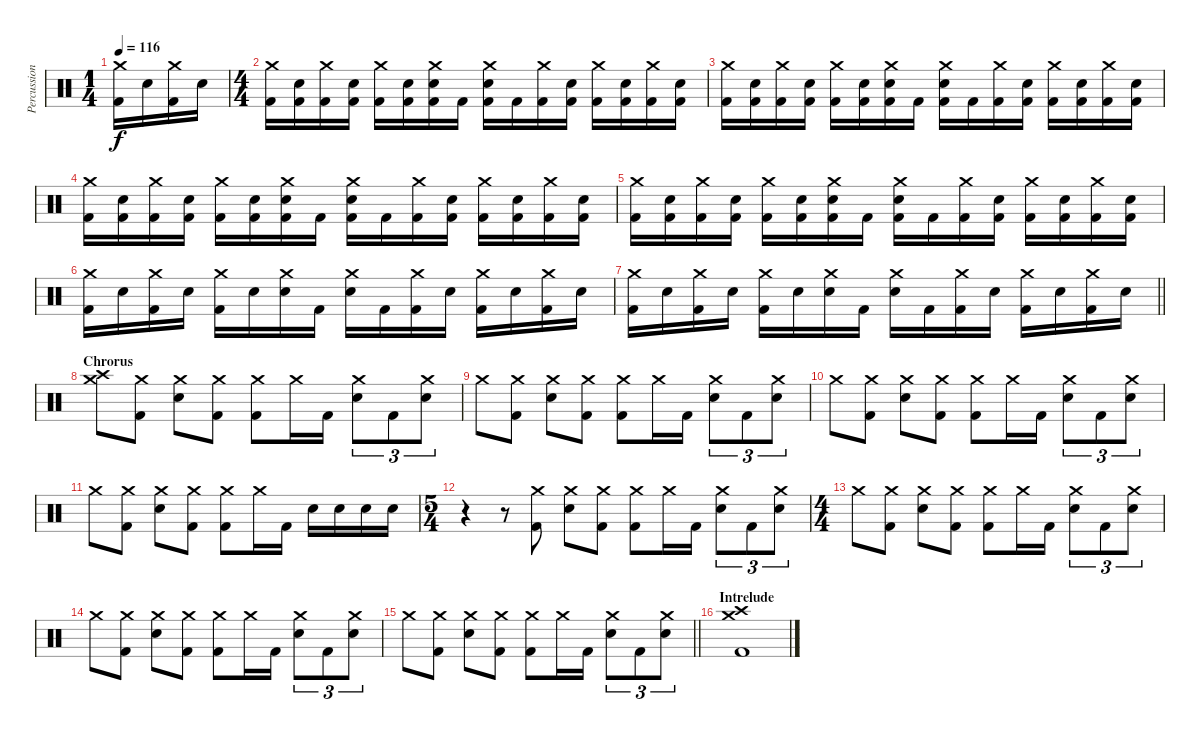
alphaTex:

\track ("Percussion" "Percussion") {instrument percussion}
\staff {score}
\articulation defaults
\ts (1 4)
\tempo 116
\clef neutral
\ks c
("Crash medium (hit)" "Kick (hit) 2").16{dy f} "Electric Snare (hit)".16 ("Crash medium (hit)" "Kick (hit) 2").16 "Electric Snare (hit)".16 |
\ts (4 4)
("Crash medium (hit)" "Kick (hit) 2").16 ("Electric Snare (hit)" "Kick (hit) 2").16 ("Crash medium (hit)" "Kick (hit) 2").16 ("Electric Snare (hit)" "Kick (hit) 2").16 ("Crash medium (hit)" "Kick (hit) 2").16 ("Electric Snare (hit)" "Kick (hit) 2").16 ("Crash medium (hit)" "Electric Snare (hit)" "Kick (hit) 2").16 "Kick (hit) 2".16 ("Crash medium (hit)" "Electric Snare (hit)" "Kick (hit) 2").16 "Kick (hit) 2".16 ("Crash medium (hit)" "Kick (hit) 2").16 ("Electric Snare (hit)" "Kick (hit) 2").16 ("Crash medium (hit)" "Kick (hit) 2").16 ("Electric Snare (hit)" "Kick (hit) 2").16 ("Crash medium (hit)" "Kick (hit) 2").16 ("Electric Snare (hit)" "Kick (hit) 2").16 |
("Crash medium (hit)" "Kick (hit) 2").16 ("Electric Snare (hit)" "Kick (hit) 2").16 ("Crash medium (hit)" "Kick (hit) 2").16 ("Electric Snare (hit)" "Kick (hit) 2").16 ("Crash medium (hit)" "Kick (hit) 2").16 ("Electric Snare (hit)" "Kick (hit) 2").16 ("Crash medium (hit)" "Electric Snare (hit)" "Kick (hit) 2").16 "Kick (hit) 2".16 ("Crash medium (hit)" "Electric Snare (hit)" "Kick (hit) 2").16 "Kick (hit) 2".16 ("Crash medium (hit)" "Kick (hit) 2").16 ("Electric Snare (hit)" "Kick (hit) 2").16 ("Crash medium (hit)" "Kick (hit) 2").16 ("Electric Snare (hit)" "Kick (hit) 2").16 ("Crash medium (hit)" "Kick (hit) 2").16 ("Electric Snare (hit)" "Kick (hit) 2").16 |
("Crash medium (hit)" "Kick (hit) 2").16 ("Electric Snare (hit)" "Kick (hit) 2").16 ("Crash medium (hit)" "Kick (hit) 2").16 ("Electric Snare (hit)" "Kick (hit) 2").16 ("Crash medium (hit)" "Kick (hit) 2").16 ("Electric Snare (hit)" "Kick (hit) 2").16 ("Crash medium (hit)" "Electric Snare (hit)" "Kick (hit) 2").16 "Kick (hit) 2".16 ("Crash medium (hit)" "Electric Snare (hit)" "Kick (hit) 2").16 "Kick (hit) 2".16 ("Crash medium (hit)" "Kick (hit) 2").16 ("Electric Snare (hit)" "Kick (hit) 2").16 ("Crash medium (hit)" "Kick (hit) 2").16 ("Electric Snare (hit)" "Kick (hit) 2").16 ("Crash medium (hit)" "Kick (hit) 2").16 ("Electric Snare (hit)" "Kick (hit) 2").16 |
("Crash medium (hit)" "Kick (hit) 2").16 ("Electric Snare (hit)" "Kick (hit) 2").16 ("Crash medium (hit)" "Kick (hit) 2").16 ("Electric Snare (hit)" "Kick (hit) 2").16 ("Crash medium (hit)" "Kick (hit) 2").16 ("Electric Snare (hit)" "Kick (hit) 2").16 ("Crash medium (hit)" "Electric Snare (hit)" "Kick (hit) 2").16 "Kick (hit) 2".16 ("Crash medium (hit)" "Electric Snare (hit)" "Kick (hit) 2").16 "Kick (hit) 2".16 ("Crash medium (hit)" "Kick (hit) 2").16 ("Electric Snare (hit)" "Kick (hit) 2").16 ("Crash medium (hit)" "Kick (hit) 2").16 ("Electric Snare (hit)" "Kick (hit) 2").16 ("Crash medium (hit)" "Kick (hit) 2").16 ("Electric Snare (hit)" "Kick (hit) 2").16 |
("Crash medium (hit)" "Kick (hit) 2").16 "Electric Snare (hit)".16 ("Crash medium (hit)" "Kick (hit) 2").16 "Electric Snare (hit)".16 ("Crash medium (hit)" "Kick (hit) 2").16 "Electric Snare (hit)".16 ("Crash medium (hit)" "Electric Snare (hit)").16 "Kick (hit) 2".16 ("Crash medium (hit)" "Electric Snare (hit)").16 "Kick (hit) 2".16 ("Crash medium (hit)" "Kick (hit) 2").16 "Electric Snare (hit)".16 ("Crash medium (hit)" "Kick (hit) 2").16 "Electric Snare (hit)".16 ("Crash medium (hit)" "Kick (hit) 2").16 "Electric Snare (hit)".16 |
\barLineRight lightlight
("Crash medium (hit)" "Kick (hit) 2").16 "Electric Snare (hit)".16 ("Crash medium (hit)" "Kick (hit) 2").16 "Electric Snare (hit)".16 ("Crash medium (hit)" "Kick (hit) 2").16 "Electric Snare (hit)".16 ("Crash medium (hit)" "Electric Snare (hit)").16 "Kick (hit) 2".16 ("Crash medium (hit)" "Electric Snare (hit)").16 "Kick (hit) 2".16 ("Crash medium (hit)" "Kick (hit) 2").16 "Electric Snare (hit)".16 ("Crash medium (hit)" "Kick (hit) 2").16 "Electric Snare (hit)".16 ("Crash medium (hit)" "Kick (hit) 2").16 "Electric Snare (hit)".16 |
\section ("" "Chrorus")
("Crash medium (hit)" "Crash high (hit)").8 ("Crash medium (hit)" "Kick (hit) 2").8 ("Crash medium (hit)" "Electric Snare (hit)").8 ("Crash medium (hit)" "Kick (hit) 2").8 ("Crash medium (hit)" "Kick (hit) 2").8 "Crash medium (hit)".16 "Kick (hit) 2".16 ("Crash medium (hit)" "Electric Snare (hit)").8{tu (3 2)} "Kick (hit) 2".8{tu (3 2)} ("Crash medium (hit)" "Electric Snare (hit)").8{tu (3 2)} |
"Crash medium (hit)".8 ("Crash medium (hit)" "Kick (hit) 2").8 ("Crash medium (hit)" "Electric Snare (hit)").8 ("Crash medium (hit)" "Kick (hit) 2").8 ("Crash medium (hit)" "Kick (hit) 2").8 "Crash medium (hit)".16 "Kick (hit) 2".16 ("Crash medium (hit)" "Electric Snare (hit)").8{tu (3 2)} "Kick (hit) 2".8{tu (3 2)} ("Crash medium (hit)" "Electric Snare (hit)").8{tu (3 2)} |
"Crash medium (hit)".8 ("Crash medium (hit)" "Kick (hit) 2").8 ("Crash medium (hit)" "Electric Snare (hit)").8 ("Crash medium (hit)" "Kick (hit) 2").8 ("Crash medium (hit)" "Kick (hit) 2").8 "Crash medium (hit)".16 "Kick (hit) 2".16 ("Crash medium (hit)" "Electric Snare (hit)").8{tu (3 2)} "Kick (hit) 2".8{tu (3 2)} ("Crash medium (hit)" "Electric Snare (hit)").8{tu (3 2)} |
"Crash medium (hit)".8 ("Crash medium (hit)" "Kick (hit) 2").8 ("Crash medium (hit)" "Electric Snare (hit)").8 ("Crash medium (hit)" "Kick (hit) 2").8 ("Crash medium (hit)" "Kick (hit) 2").8 "Crash medium (hit)".16 "Kick (hit) 2".16 "Electric Snare (hit)".16 "Electric Snare (hit)".16 "Electric Snare (hit)".16 "Electric Snare (hit)".16 |
\ts (5 4)
r.4 r.8 ("Crash medium (hit)" "Kick (hit) 2").8 ("Crash medium (hit)" "Electric Snare (hit)").8 ("Crash medium (hit)" "Kick (hit) 2").8 ("Crash medium (hit)" "Kick (hit) 2").8 "Crash medium (hit)".16 "Kick (hit) 2".16 ("Crash medium (hit)" "Electric Snare (hit)").8{tu (3 2)} "Kick (hit) 2".8{tu (3 2)} ("Crash medium (hit)" "Electric Snare (hit)").8{tu (3 2)} |
\ts (4 4)
"Crash medium (hit)".8 ("Crash medium (hit)" "Kick (hit) 2").8 ("Crash medium (hit)" "Electric Snare (hit)").8 ("Crash medium (hit)" "Kick (hit) 2").8 ("Crash medium (hit)" "Kick (hit) 2").8 "Crash medium (hit)".16 "Kick (hit) 2".16 ("Crash medium (hit)" "Electric Snare (hit)").8{tu (3 2)} "Kick (hit) 2".8{tu (3 2)} ("Crash medium (hit)" "Electric Snare (hit)").8{tu (3 2)} |
"Crash medium (hit)".8 ("Crash medium (hit)" "Kick (hit) 2").8 ("Crash medium (hit)" "Electric Snare (hit)").8 ("Crash medium (hit)" "Kick (hit) 2").8 ("Crash medium (hit)" "Kick (hit) 2").8 "Crash medium (hit)".16 "Kick (hit) 2".16 ("Crash medium (hit)" "Electric Snare (hit)").8{tu (3 2)} "Kick (hit) 2".8{tu (3 2)} ("Crash medium (hit)" "Electric Snare (hit)").8{tu (3 2)} |
\barLineRight lightlight "Crash medium (hit)".8
("Crash medium (hit)" "Kick (hit) 2").8 ("Crash medium (hit)" "Electric Snare (hit)").8 ("Crash medium (hit)" "Kick (hit) 2").8 ("Crash medium (hit)" "Kick (hit) 2").8 "Crash medium (hit)".16 "Kick (hit) 2".16 ("Crash medium (hit)" "Electric Snare (hit)").8{tu (3 2)} "Kick (hit) 2".8{tu (3 2)} ("Crash medium (hit)" "Electric Snare (hit)").8{tu (3 2)} |
\section ("" "Intrelude")
("Crash medium (hit)" "Crash high (hit)" "Kick (hit) 2").1
